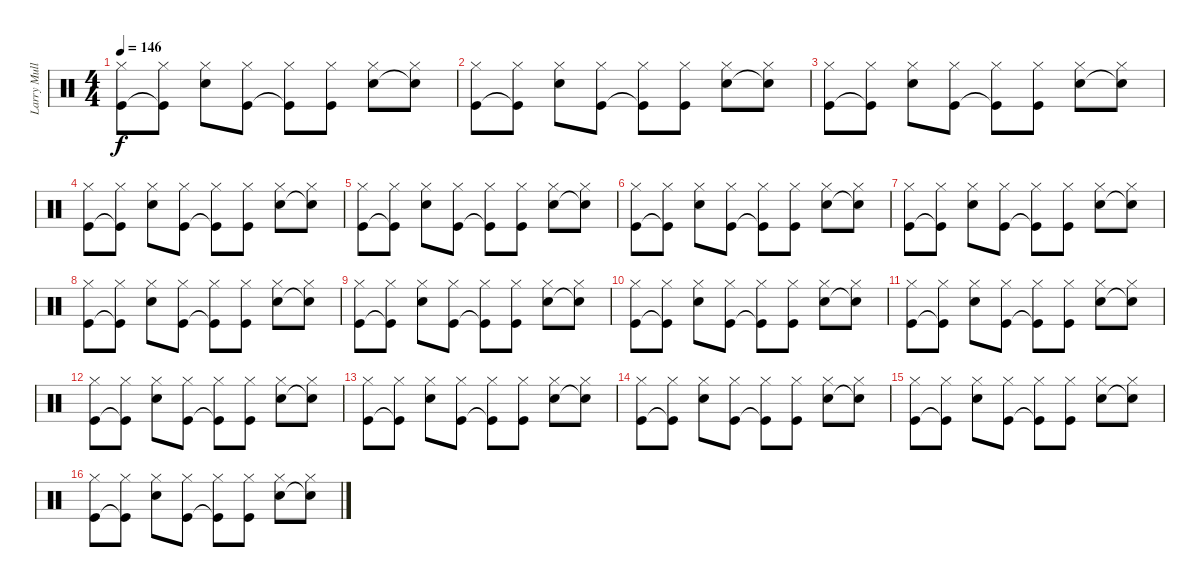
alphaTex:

\track ("Larry Mullen" "Larry Mull") {instrument percussion}
\staff {score}
\articulation defaults
\ts (4 4)
\tempo 146
\clef neutral
\ks c
("Hi-Hat (closed)" "Kick (hit)").8{dy f} ("Hi-Hat (closed)" "Kick (hit)"{t}).8 ("Hi-Hat (closed)" "Snare (hit) 2").8 ("Hi-Hat (closed)" "Kick (hit)").8 ("Hi-Hat (closed)" "Kick (hit)"{t}).8 ("Hi-Hat (closed)" "Kick (hit)").8 ("Hi-Hat (closed)" "Snare (hit) 2").8 ("Hi-Hat (closed)" "Snare (hit) 2"{t}).8 |
("Hi-Hat (closed)" "Kick (hit)").8 ("Hi-Hat (closed)" "Kick (hit)"{t}).8 ("Hi-Hat (closed)" "Snare (hit) 2").8 ("Hi-Hat (closed)" "Kick (hit)").8 ("Hi-Hat (closed)" "Kick (hit)"{t}).8 ("Hi-Hat (closed)" "Kick (hit)").8 ("Hi-Hat (closed)" "Snare (hit) 2").8 ("Hi-Hat (closed)" "Snare (hit) 2"{t}).8 |
("Hi-Hat (closed)" "Kick (hit)").8 ("Hi-Hat (closed)" "Kick (hit)"{t}).8 ("Hi-Hat (closed)" "Snare (hit) 2").8 ("Hi-Hat (closed)" "Kick (hit)").8 ("Hi-Hat (closed)" "Kick (hit)"{t}).8 ("Hi-Hat (closed)" "Kick (hit)").8 ("Hi-Hat (closed)" "Snare (hit) 2").8 ("Hi-Hat (closed)" "Snare (hit) 2"{t}).8 |
("Hi-Hat (closed)" "Kick (hit)").8 ("Hi-Hat (closed)" "Kick (hit)"{t}).8 ("Hi-Hat (closed)" "Snare (hit) 2").8 ("Hi-Hat (closed)" "Kick (hit)").8 ("Hi-Hat (closed)" "Kick (hit)"{t}).8 ("Hi-Hat (closed)" "Kick (hit)").8 ("Hi-Hat (closed)" "Snare (hit) 2").8 ("Hi-Hat (closed)" "Snare (hit) 2"{t}).8 |
("Hi-Hat (closed)" "Kick (hit)").8 ("Hi-Hat (closed)" "Kick (hit)"{t}).8 ("Hi-Hat (closed)" "Snare (hit) 2").8 ("Hi-Hat (closed)" "Kick (hit)").8 ("Hi-Hat (closed)" "Kick (hit)"{t}).8 ("Hi-Hat (closed)" "Kick (hit)").8 ("Hi-Hat (closed)" "Snare (hit) 2").8 ("Hi-Hat (closed)" "Snare (hit) 2"{t}).8 |
("Hi-Hat (closed)" "Kick (hit)").8 ("Hi-Hat (closed)" "Kick (hit)"{t}).8 ("Hi-Hat (closed)" "Snare (hit) 2").8 ("Hi-Hat (closed)" "Kick (hit)").8 ("Hi-Hat (closed)" "Kick (hit)"{t}).8 ("Hi-Hat (closed)" "Kick (hit)").8 ("Hi-Hat (closed)" "Snare (hit) 2").8 ("Hi-Hat (closed)" "Snare (hit) 2"{t}).8 |
("Hi-Hat (closed)" "Kick (hit)").8 ("Hi-Hat (closed)" "Kick (hit)"{t}).8 ("Hi-Hat (closed)" "Snare (hit) 2").8 ("Hi-Hat (closed)" "Kick (hit)").8 ("Hi-Hat (closed)" "Kick (hit)"{t}).8 ("Hi-Hat (closed)" "Kick (hit)").8 ("Hi-Hat (closed)" "Snare (hit) 2").8 ("Hi-Hat (closed)" "Snare (hit) 2"{t}).8 |
("Hi-Hat (closed)" "Kick (hit)").8 ("Hi-Hat (closed)" "Kick (hit)"{t}).8 ("Hi-Hat (closed)" "Snare (hit) 2").8 ("Hi-Hat (closed)" "Kick (hit)").8 ("Hi-Hat (closed)" "Kick (hit)"{t}).8 ("Hi-Hat (closed)" "Kick (hit)").8 ("Hi-Hat (closed)" "Snare (hit) 2").8 ("Hi-Hat (closed)" "Snare (hit) 2"{t}).8 |
("Hi-Hat (closed)" "Kick (hit)").8 ("Hi-Hat (closed)" "Kick (hit)"{t}).8 ("Hi-Hat (closed)" "Snare (hit) 2").8 ("Hi-Hat (closed)" "Kick (hit)").8 ("Hi-Hat (closed)" "Kick (hit)"{t}).8 ("Hi-Hat (closed)" "Kick (hit)").8 ("Hi-Hat (closed)" "Snare (hit) 2").8 ("Hi-Hat (closed)" "Snare (hit) 2"{t}).8 |
("Hi-Hat (closed)" "Kick (hit)").8 ("Hi-Hat (closed)" "Kick (hit)"{t}).8 ("Hi-Hat (closed)" "Snare (hit) 2").8 ("Hi-Hat (closed)" "Kick (hit)").8 ("Hi-Hat (closed)" "Kick (hit)"{t}).8 ("Hi-Hat (closed)" "Kick (hit)").8 ("Hi-Hat (closed)" "Snare (hit) 2").8 ("Hi-Hat (closed)" "Snare (hit) 2"{t}).8 |
("Hi-Hat (closed)" "Kick (hit)").8 ("Hi-Hat (closed)" "Kick (hit)"{t}).8 ("Hi-Hat (closed)" "Snare (hit) 2").8 ("Hi-Hat (closed)" "Kick (hit)").8 ("Hi-Hat (closed)" "Kick (hit)"{t}).8 ("Hi-Hat (closed)" "Kick (hit)").8 ("Hi-Hat (closed)" "Snare (hit) 2").8 ("Hi-Hat (closed)" "Snare (hit) 2"{t}).8 |
("Hi-Hat (closed)" "Kick (hit)").8 ("Hi-Hat (closed)" "Kick (hit)"{t}).8 ("Hi-Hat (closed)" "Snare (hit) 2").8 ("Hi-Hat (closed)" "Kick (hit)").8 ("Hi-Hat (closed)" "Kick (hit)"{t}).8 ("Hi-Hat (closed)" "Kick (hit)").8 ("Hi-Hat (closed)" "Snare (hit) 2").8 ("Hi-Hat (closed)" "Snare (hit) 2"{t}).8 |
("Hi-Hat (closed)" "Kick (hit)").8 ("Hi-Hat (closed)" "Kick (hit)"{t}).8 ("Hi-Hat (closed)" "Snare (hit) 2").8 ("Hi-Hat (closed)" "Kick (hit)").8 ("Hi-Hat (closed)" "Kick (hit)"{t}).8 ("Hi-Hat (closed)" "Kick (hit)").8 ("Hi-Hat (closed)" "Snare (hit) 2").8 ("Hi-Hat (closed)" "Snare (hit) 2"{t}).8 |
("Hi-Hat (closed)" "Kick (hit)").8 ("Hi-Hat (closed)" "Kick (hit)"{t}).8 ("Hi-Hat (closed)" "Snare (hit) 2").8 ("Hi-Hat (closed)" "Kick (hit)").8 ("Hi-Hat (closed)" "Kick (hit)"{t}).8 ("Hi-Hat (closed)" "Kick (hit)").8 ("Hi-Hat (closed)" "Snare (hit) 2").8 ("Hi-Hat (closed)" "Snare (hit) 2"{t}).8 |
("Hi-Hat (closed)" "Kick (hit)").8 ("Hi-Hat (closed)" "Kick (hit)"{t}).8 ("Hi-Hat (closed)" "Snare (hit) 2").8 ("Hi-Hat (closed)" "Kick (hit)").8 ("Hi-Hat (closed)" "Kick (hit)"{t}).8 ("Hi-Hat (closed)" "Kick (hit)").8 ("Hi-Hat (closed)" "Snare (hit) 2").8 ("Hi-Hat (closed)" "Snare (hit) 2"{t}).8 |
("Hi-Hat (closed)" "Kick (hit)").8 ("Hi-Hat (closed)" "Kick (hit)"{t}).8 ("Hi-Hat (closed)" "Snare (hit) 2").8 ("Hi-Hat (closed)" "Kick (hit)").8 ("Hi-Hat (closed)" "Kick (hit)"{t}).8 ("Hi-Hat (closed)" "Kick (hit)").8 ("Hi-Hat (closed)" "Snare (hit) 2").8 ("Hi-Hat (closed)" "Snare (hit) 2"{t}).8
